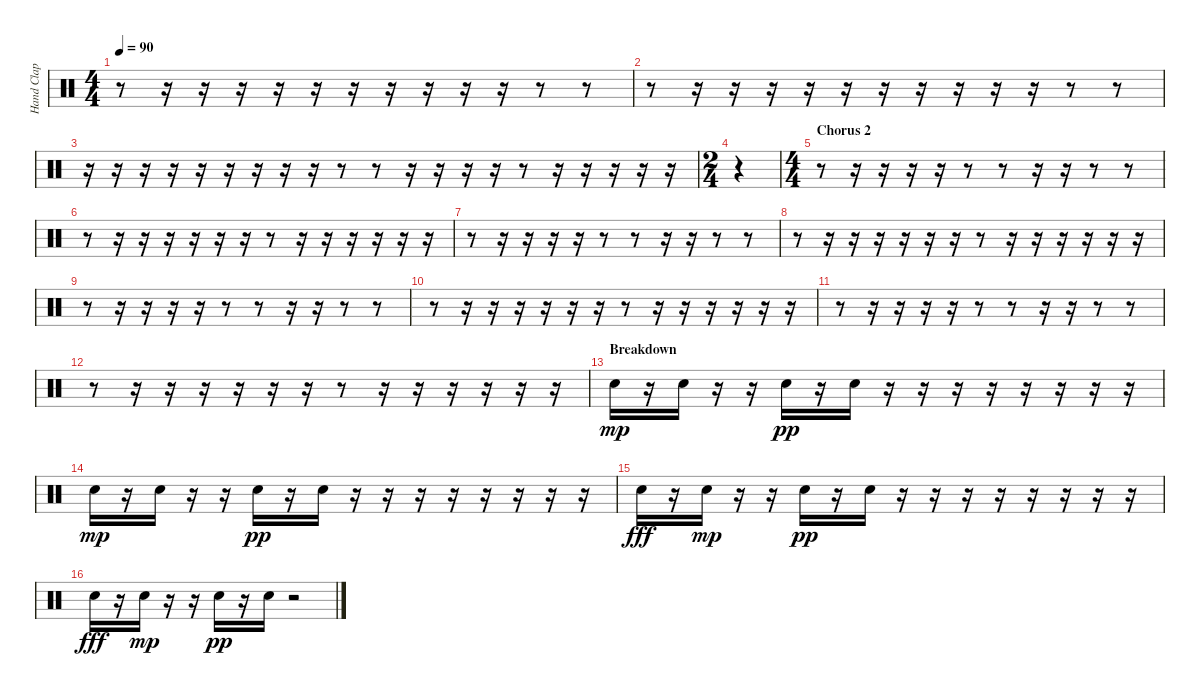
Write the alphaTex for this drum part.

\track ("Hand Clap" "Hand Clap") {instrument percussion}
\staff {score}
\articulation defaults
\ts (4 4)
\tempo 90
\clef neutral
\ks c
r.8{dy pp} r.16 r.16 r.16 r.16 r.16 r.16 r.16 r.16 r.16 r.16 r.8 r.8 |
r.8 r.16 r.16 r.16 r.16 r.16 r.16 r.16 r.16 r.16 r.16 r.8 r.8 |
r.16 r.16 r.16 r.16 r.16 r.16 r.16 r.16 r.16 r.8 r.8 r.16 r.16 r.16 r.16 r.8 r.16 r.16 r.16 r.16 r.16 |
\ts (2 4)
r.4 |
\ts (4 4)
\section ("" "Chorus 2")
r.8 r.16 r.16 r.16 r.16 r.8 r.8 r.16 r.16 r.8 r.8 |
r.8 r.16 r.16 r.16 r.16 r.16 r.16 r.8 r.16 r.16 r.16 r.16 r.16 r.16 |
r.8 r.16 r.16 r.16 r.16 r.8 r.8 r.16 r.16 r.8 r.8 |
r.8 r.16 r.16 r.16 r.16 r.16 r.16 r.8 r.16 r.16 r.16 r.16 r.16 r.16 |
r.8 r.16 r.16 r.16 r.16 r.8 r.8 r.16 r.16 r.8 r.8 |
r.8 r.16 r.16 r.16 r.16 r.16 r.16 r.8 r.16 r.16 r.16 r.16 r.16 r.16 |
r.8 r.16 r.16 r.16 r.16 r.8 r.8 r.16 r.16 r.8 r.8 |
r.8 r.16 r.16 r.16 r.16 r.16 r.16 r.8 r.16 r.16 r.16 r.16 r.16 r.16 |
\section ("" "Breakdown")
"Hand Clap (hit)".16{dy mp} r.16 "Hand Clap (hit)".16 r.16 r.16 "Hand Clap (hit)".16{dy pp} r.16 "Hand Clap (hit)".16 r.16 r.16 r.16 r.16 r.16 r.16 r.16 r.16 |
"Hand Clap (hit)".16{dy mp} r.16 "Hand Clap (hit)".16 r.16 r.16 "Hand Clap (hit)".16{dy pp} r.16 "Hand Clap (hit)".16 r.16 r.16 r.16 r.16 r.16 r.16 r.16 r.16 |
"Hand Clap (hit)".16{dy fff} r.16 "Hand Clap (hit)".16{dy mp} r.16 r.16 "Hand Clap (hit)".16{dy pp} r.16 "Hand Clap (hit)".16 r.16 r.16 r.16 r.16 r.16 r.16 r.16 r.16 |
"Hand Clap (hit)".16{dy fff} r.16 "Hand Clap (hit)".16{dy mp} r.16 r.16 "Hand Clap (hit)".16{dy pp} r.16 "Hand Clap (hit)".16 r.2
